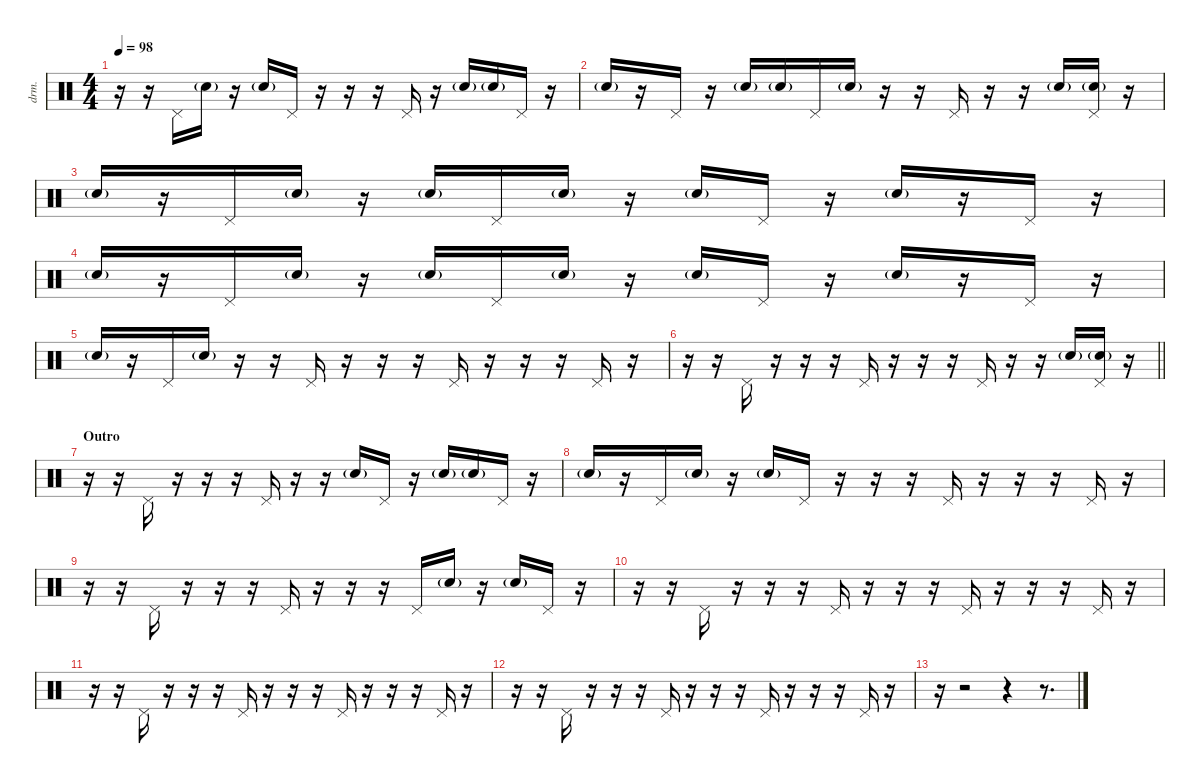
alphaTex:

\defaultSystemsLayout 4
\hideDynamics
\bracketExtendMode nobrackets
\otherSystemsTrackNameOrientation horizontal
\track ("Duris Maxwell" "drm.") {instrument percussion}
\staff {score}
\articulation defaults
\ts (4 4)
\tempo 98
\clef neutral
\ks c
r.16{dy f beam Down} r.16{beam Down} "Pedal Hi-Hat (hit)".16{beam Up} "Snare (hit) 2"{g}.16{beam Up} r.16{beam Up} "Snare (hit) 2"{g}.16{beam Up} "Pedal Hi-Hat (hit)".16{beam Up} r.16{beam Up} r.16{beam Up} r.16{beam Up} "Pedal Hi-Hat (hit)".16{beam Up} r.16{beam Up} "Snare (hit) 2"{g}.16{beam Up} "Snare (hit) 2"{g}.16{beam Up} "Pedal Hi-Hat (hit)".16{beam Up} r.16{beam Up} |
"Snare (hit) 2"{g}.16{beam Up} r.16{beam Up} "Pedal Hi-Hat (hit)".16{beam Up} r.16{beam Up} "Snare (hit) 2"{g}.16{beam Up} "Snare (hit) 2"{g}.16{beam Up} "Pedal Hi-Hat (hit)".16{beam Up} "Snare (hit) 2"{g}.16{beam Up} r.16{beam Up} r.16{beam Up} "Pedal Hi-Hat (hit)".16{beam Up} r.16{beam Up} r.16{beam Up} "Snare (hit) 2"{g}.16{beam Up} ("Pedal Hi-Hat (hit)" "Snare (hit) 2"{g}).16{beam Up} r.16{beam Up} |
"Snare (hit) 2"{g}.16{beam Up} r.16{beam Up} "Pedal Hi-Hat (hit)".16{beam Up} "Snare (hit) 2"{g}.16{beam Up} r.16{beam Up} "Snare (hit) 2"{g}.16{beam Up} "Pedal Hi-Hat (hit)".16{beam Up} "Snare (hit) 2"{g}.16{beam Up} r.16{beam Up} "Snare (hit) 2"{g}.16{beam Up} "Pedal Hi-Hat (hit)".16{beam Up} r.16{beam Up} "Snare (hit) 2"{g}.16{beam Up} r.16{beam Up} "Pedal Hi-Hat (hit)".16{beam Up} r.16{beam Up} |
"Snare (hit) 2"{g}.16{beam Up} r.16{beam Up} "Pedal Hi-Hat (hit)".16{beam Up} "Snare (hit) 2"{g}.16{beam Up} r.16{beam Up} "Snare (hit) 2"{g}.16{beam Up} "Pedal Hi-Hat (hit)".16{beam Up} "Snare (hit) 2"{g}.16{beam Up} r.16{beam Up} "Snare (hit) 2"{g}.16{beam Up} "Pedal Hi-Hat (hit)".16{beam Up} r.16{beam Up} "Snare (hit) 2"{g}.16{beam Up} r.16{beam Up} "Pedal Hi-Hat (hit)".16{beam Up} r.16{beam Up} |
"Snare (hit) 2"{g}.16{beam Up} r.16{beam Up} "Pedal Hi-Hat (hit)".16{beam Up} "Snare (hit) 2"{g}.16{beam Up} r.16{beam Up} r.16{beam Up} "Pedal Hi-Hat (hit)".16{beam Up} r.16{beam Up} r.16{beam Up} r.16{beam Up} "Pedal Hi-Hat (hit)".16{beam Up} r.16{beam Up} r.16{beam Up} r.16{beam Up} "Pedal Hi-Hat (hit)".16{beam Up} r.16{beam Up} |
\barLineRight lightlight
r.16{beam Down} r.16{beam Down} "Pedal Hi-Hat (hit)".16{beam Up} r.16{beam Up} r.16{beam Up} r.16{beam Up} "Pedal Hi-Hat (hit)".16{beam Up} r.16{beam Up} r.16{beam Up} r.16{beam Up} "Pedal Hi-Hat (hit)".16{beam Up} r.16{beam Up} r.16{beam Up} "Snare (hit) 2"{g}.16{beam Up} ("Pedal Hi-Hat (hit)" "Snare (hit) 2"{g}).16{beam Up} r.16{beam Up} |
\section ("" "Outro")
r.16{beam Down} r.16{beam Down} "Pedal Hi-Hat (hit)".16{beam Up} r.16{beam Up} r.16{beam Up} r.16{beam Up} "Pedal Hi-Hat (hit)".16{beam Up} r.16{beam Up} r.16{beam Up} "Snare (hit) 2"{g}.16{beam Up} "Pedal Hi-Hat (hit)".16{beam Up} r.16{beam Up} "Snare (hit) 2"{g}.16{beam Up} "Snare (hit) 2"{g}.16{beam Up} "Pedal Hi-Hat (hit)".16{beam Up} r.16{beam Up} |
"Snare (hit) 2"{g}.16{beam Up} r.16{beam Up} "Pedal Hi-Hat (hit)".16{beam Up} "Snare (hit) 2"{g}.16{beam Up} r.16{beam Up} "Snare (hit) 2"{g}.16{beam Up} "Pedal Hi-Hat (hit)".16{beam Up} r.16{beam Up} r.16{beam Up} r.16{beam Up} "Pedal Hi-Hat (hit)".16{beam Up} r.16{beam Up} r.16{beam Up} r.16{beam Up} "Pedal Hi-Hat (hit)".16{beam Up} r.16{beam Up} |
r.16{beam Down} r.16{beam Down} "Pedal Hi-Hat (hit)".16{beam Up} r.16{beam Up} r.16{beam Up} r.16{beam Up} "Pedal Hi-Hat (hit)".16{beam Up} r.16{beam Up} r.16{beam Up} r.16{beam Up} "Pedal Hi-Hat (hit)".16{beam Up} "Snare (hit) 2"{g}.16{beam Up} r.16{beam Up} "Snare (hit) 2"{g}.16{beam Up} "Pedal Hi-Hat (hit)".16{beam Up} r.16{beam Up} |
r.16{beam Down} r.16{beam Down} "Pedal Hi-Hat (hit)".16{beam Up} r.16{beam Up} r.16{beam Up} r.16{beam Up} "Pedal Hi-Hat (hit)".16{beam Up} r.16{beam Up} r.16{beam Up} r.16{beam Up} "Pedal Hi-Hat (hit)".16{beam Up} r.16{beam Up} r.16{beam Up} r.16{beam Up} "Pedal Hi-Hat (hit)".16{beam Up} r.16{beam Up} |
r.16{beam Down} r.16{beam Down} "Pedal Hi-Hat (hit)".16{beam Up} r.16{beam Up} r.16{beam Up} r.16{beam Up} "Pedal Hi-Hat (hit)".16{beam Up} r.16{beam Up} r.16{beam Up} r.16{beam Up} "Pedal Hi-Hat (hit)".16{beam Up} r.16{beam Up} r.16{beam Up} r.16{beam Up} "Pedal Hi-Hat (hit)".16{beam Up} r.16{beam Up} |
r.16{beam Down} r.16{beam Down} "Pedal Hi-Hat (hit)".16{beam Up} r.16{beam Up} r.16{beam Up} r.16{beam Up} "Pedal Hi-Hat (hit)".16{beam Up} r.16{beam Up} r.16{beam Up} r.16{beam Up} "Pedal Hi-Hat (hit)".16{beam Up} r.16{beam Up} r.16{beam Up} r.16{beam Up} "Pedal Hi-Hat (hit)".16{beam Up} r.16{beam Up} |
r.16{beam Down} r.2{beam Down} r.4{beam Down} r.8{d beam Down}
